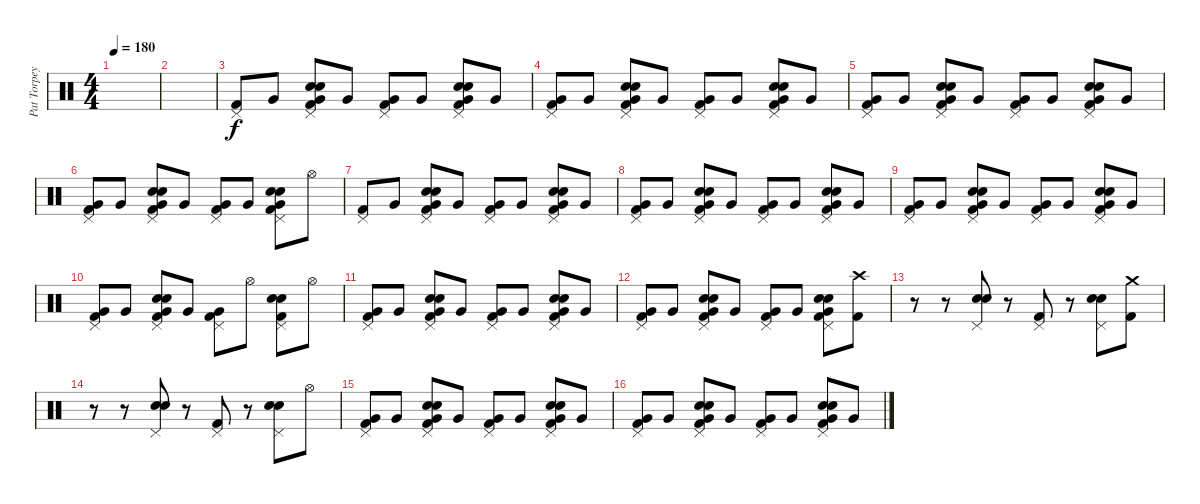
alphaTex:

\track ("Pat Torpey" "Pat Torpey") {instrument percussion}
\staff {score}
\articulation defaults
\ts (4 4)
\tempo 180
\clef neutral
\ks c
|
|
("Pedal Hi-Hat (hit)" "Kick (hit) 2").8 "Very Low Tom (hit)".8 ("Pedal Hi-Hat (hit)" "Very Low Tom (hit)" "Snare (hit) 2" "Electric Snare (hit)" "Kick (hit) 2").8 "Very Low Tom (hit)".8 ("Pedal Hi-Hat (hit)" "Very Low Tom (hit)" "Kick (hit) 2").8 "Very Low Tom (hit)".8 ("Pedal Hi-Hat (hit)" "Very Low Tom (hit)" "Snare (hit) 2" "Electric Snare (hit)" "Kick (hit) 2").8 "Very Low Tom (hit)".8 |
("Pedal Hi-Hat (hit)" "Very Low Tom (hit)" "Kick (hit) 2").8 "Very Low Tom (hit)".8 ("Pedal Hi-Hat (hit)" "Very Low Tom (hit)" "Snare (hit) 2" "Electric Snare (hit)" "Kick (hit) 2").8 "Very Low Tom (hit)".8 ("Pedal Hi-Hat (hit)" "Very Low Tom (hit)" "Kick (hit) 2").8 "Very Low Tom (hit)".8 ("Pedal Hi-Hat (hit)" "Very Low Tom (hit)" "Snare (hit) 2" "Electric Snare (hit)" "Kick (hit) 2").8 "Very Low Tom (hit)".8 |
("Pedal Hi-Hat (hit)" "Very Low Tom (hit)" "Kick (hit) 2").8 "Very Low Tom (hit)".8 ("Pedal Hi-Hat (hit)" "Very Low Tom (hit)" "Snare (hit) 2" "Electric Snare (hit)" "Kick (hit) 2").8 "Very Low Tom (hit)".8 ("Pedal Hi-Hat (hit)" "Very Low Tom (hit)" "Kick (hit) 2").8 "Very Low Tom (hit)".8 ("Pedal Hi-Hat (hit)" "Very Low Tom (hit)" "Snare (hit) 2" "Electric Snare (hit)" "Kick (hit) 2").8 "Very Low Tom (hit)".8 |
("Pedal Hi-Hat (hit)" "Very Low Tom (hit)" "Kick (hit) 2").8 "Very Low Tom (hit)".8 ("Pedal Hi-Hat (hit)" "Very Low Tom (hit)" "Snare (hit) 2" "Electric Snare (hit)" "Kick (hit) 2").8 "Very Low Tom (hit)".8 ("Pedal Hi-Hat (hit)" "Very Low Tom (hit)" "Kick (hit) 2").8 "Very Low Tom (hit)".8 ("Pedal Hi-Hat (hit)" "Very Low Tom (hit)" "Snare (hit) 2" "Electric Snare (hit)" "Kick (hit) 2").8 "Hi-Hat (open)".8 |
("Pedal Hi-Hat (hit)" "Kick (hit) 2").8 "Very Low Tom (hit)".8 ("Pedal Hi-Hat (hit)" "Very Low Tom (hit)" "Snare (hit) 2" "Electric Snare (hit)" "Kick (hit) 2").8 "Very Low Tom (hit)".8 ("Pedal Hi-Hat (hit)" "Very Low Tom (hit)" "Kick (hit) 2").8 "Very Low Tom (hit)".8 ("Pedal Hi-Hat (hit)" "Very Low Tom (hit)" "Snare (hit) 2" "Electric Snare (hit)" "Kick (hit) 2").8 "Very Low Tom (hit)".8 |
("Pedal Hi-Hat (hit)" "Very Low Tom (hit)" "Kick (hit) 2").8 "Very Low Tom (hit)".8 ("Pedal Hi-Hat (hit)" "Very Low Tom (hit)" "Snare (hit) 2" "Electric Snare (hit)" "Kick (hit) 2").8 "Very Low Tom (hit)".8 ("Pedal Hi-Hat (hit)" "Very Low Tom (hit)" "Kick (hit) 2").8 "Very Low Tom (hit)".8 ("Pedal Hi-Hat (hit)" "Very Low Tom (hit)" "Snare (hit) 2" "Electric Snare (hit)" "Kick (hit) 2").8 "Very Low Tom (hit)".8 |
("Pedal Hi-Hat (hit)" "Very Low Tom (hit)" "Kick (hit) 2").8 "Very Low Tom (hit)".8 ("Pedal Hi-Hat (hit)" "Very Low Tom (hit)" "Snare (hit) 2" "Electric Snare (hit)" "Kick (hit) 2").8 "Very Low Tom (hit)".8 ("Pedal Hi-Hat (hit)" "Very Low Tom (hit)" "Kick (hit) 2").8 "Very Low Tom (hit)".8 ("Pedal Hi-Hat (hit)" "Very Low Tom (hit)" "Snare (hit) 2" "Electric Snare (hit)" "Kick (hit) 2").8 "Very Low Tom (hit)".8 |
("Pedal Hi-Hat (hit)" "Very Low Tom (hit)" "Kick (hit) 2").8 "Very Low Tom (hit)".8 ("Pedal Hi-Hat (hit)" "Very Low Tom (hit)" "Snare (hit) 2" "Electric Snare (hit)" "Kick (hit) 2").8 "Very Low Tom (hit)".8 ("Pedal Hi-Hat (hit)" "Very Low Tom (hit)" "Kick (hit) 2").8 "Hi-Hat (open)".8 ("Pedal Hi-Hat (hit)" "Snare (hit) 2" "Electric Snare (hit)" "Kick (hit) 2").8 "Hi-Hat (open)".8 |
("Pedal Hi-Hat (hit)" "Very Low Tom (hit)" "Kick (hit) 2").8 "Very Low Tom (hit)".8 ("Pedal Hi-Hat (hit)" "Very Low Tom (hit)" "Snare (hit) 2" "Electric Snare (hit)" "Kick (hit) 2").8 "Very Low Tom (hit)".8 ("Pedal Hi-Hat (hit)" "Very Low Tom (hit)" "Kick (hit) 2").8 "Very Low Tom (hit)".8 ("Pedal Hi-Hat (hit)" "Very Low Tom (hit)" "Snare (hit) 2" "Electric Snare (hit)" "Kick (hit) 2").8 "Very Low Tom (hit)".8 |
("Pedal Hi-Hat (hit)" "Very Low Tom (hit)" "Kick (hit) 2").8 "Very Low Tom (hit)".8 ("Pedal Hi-Hat (hit)" "Very Low Tom (hit)" "Snare (hit) 2" "Electric Snare (hit)" "Kick (hit) 2").8 "Very Low Tom (hit)".8 ("Pedal Hi-Hat (hit)" "Very Low Tom (hit)" "Kick (hit) 2").8 "Very Low Tom (hit)".8 ("Pedal Hi-Hat (hit)" "Very Low Tom (hit)" "Snare (hit) 2" "Electric Snare (hit)" "Kick (hit) 2").8 ("Crash high (hit)" "Kick (hit) 2").8 |
r.8 r.8 ("Pedal Hi-Hat (hit)" "Snare (hit) 2" "Electric Snare (hit)").8 r.8 ("Pedal Hi-Hat (hit)" "Kick (hit) 2").8 r.8 ("Pedal Hi-Hat (hit)" "Snare (hit) 2" "Electric Snare (hit)").8 ("Crash medium (hit)" "Kick (hit) 2").8 |
r.8 r.8 ("Pedal Hi-Hat (hit)" "Snare (hit) 2" "Electric Snare (hit)").8 r.8 ("Pedal Hi-Hat (hit)" "Kick (hit) 2").8 r.8 ("Pedal Hi-Hat (hit)" "Snare (hit) 2" "Electric Snare (hit)").8 "Hi-Hat (open)".8 |
("Pedal Hi-Hat (hit)" "Very Low Tom (hit)" "Kick (hit) 2").8 "Very Low Tom (hit)".8 ("Pedal Hi-Hat (hit)" "Very Low Tom (hit)" "Snare (hit) 2" "Electric Snare (hit)" "Kick (hit) 2").8 "Very Low Tom (hit)".8 ("Pedal Hi-Hat (hit)" "Very Low Tom (hit)" "Kick (hit) 2").8 "Very Low Tom (hit)".8 ("Pedal Hi-Hat (hit)" "Very Low Tom (hit)" "Snare (hit) 2" "Electric Snare (hit)" "Kick (hit) 2").8 "Very Low Tom (hit)".8 |
("Pedal Hi-Hat (hit)" "Very Low Tom (hit)" "Kick (hit) 2").8 "Very Low Tom (hit)".8 ("Pedal Hi-Hat (hit)" "Very Low Tom (hit)" "Snare (hit) 2" "Electric Snare (hit)" "Kick (hit) 2").8 "Very Low Tom (hit)".8 ("Pedal Hi-Hat (hit)" "Very Low Tom (hit)" "Kick (hit) 2").8 "Very Low Tom (hit)".8 ("Pedal Hi-Hat (hit)" "Very Low Tom (hit)" "Snare (hit) 2" "Electric Snare (hit)" "Kick (hit) 2").8 "Very Low Tom (hit)".8
